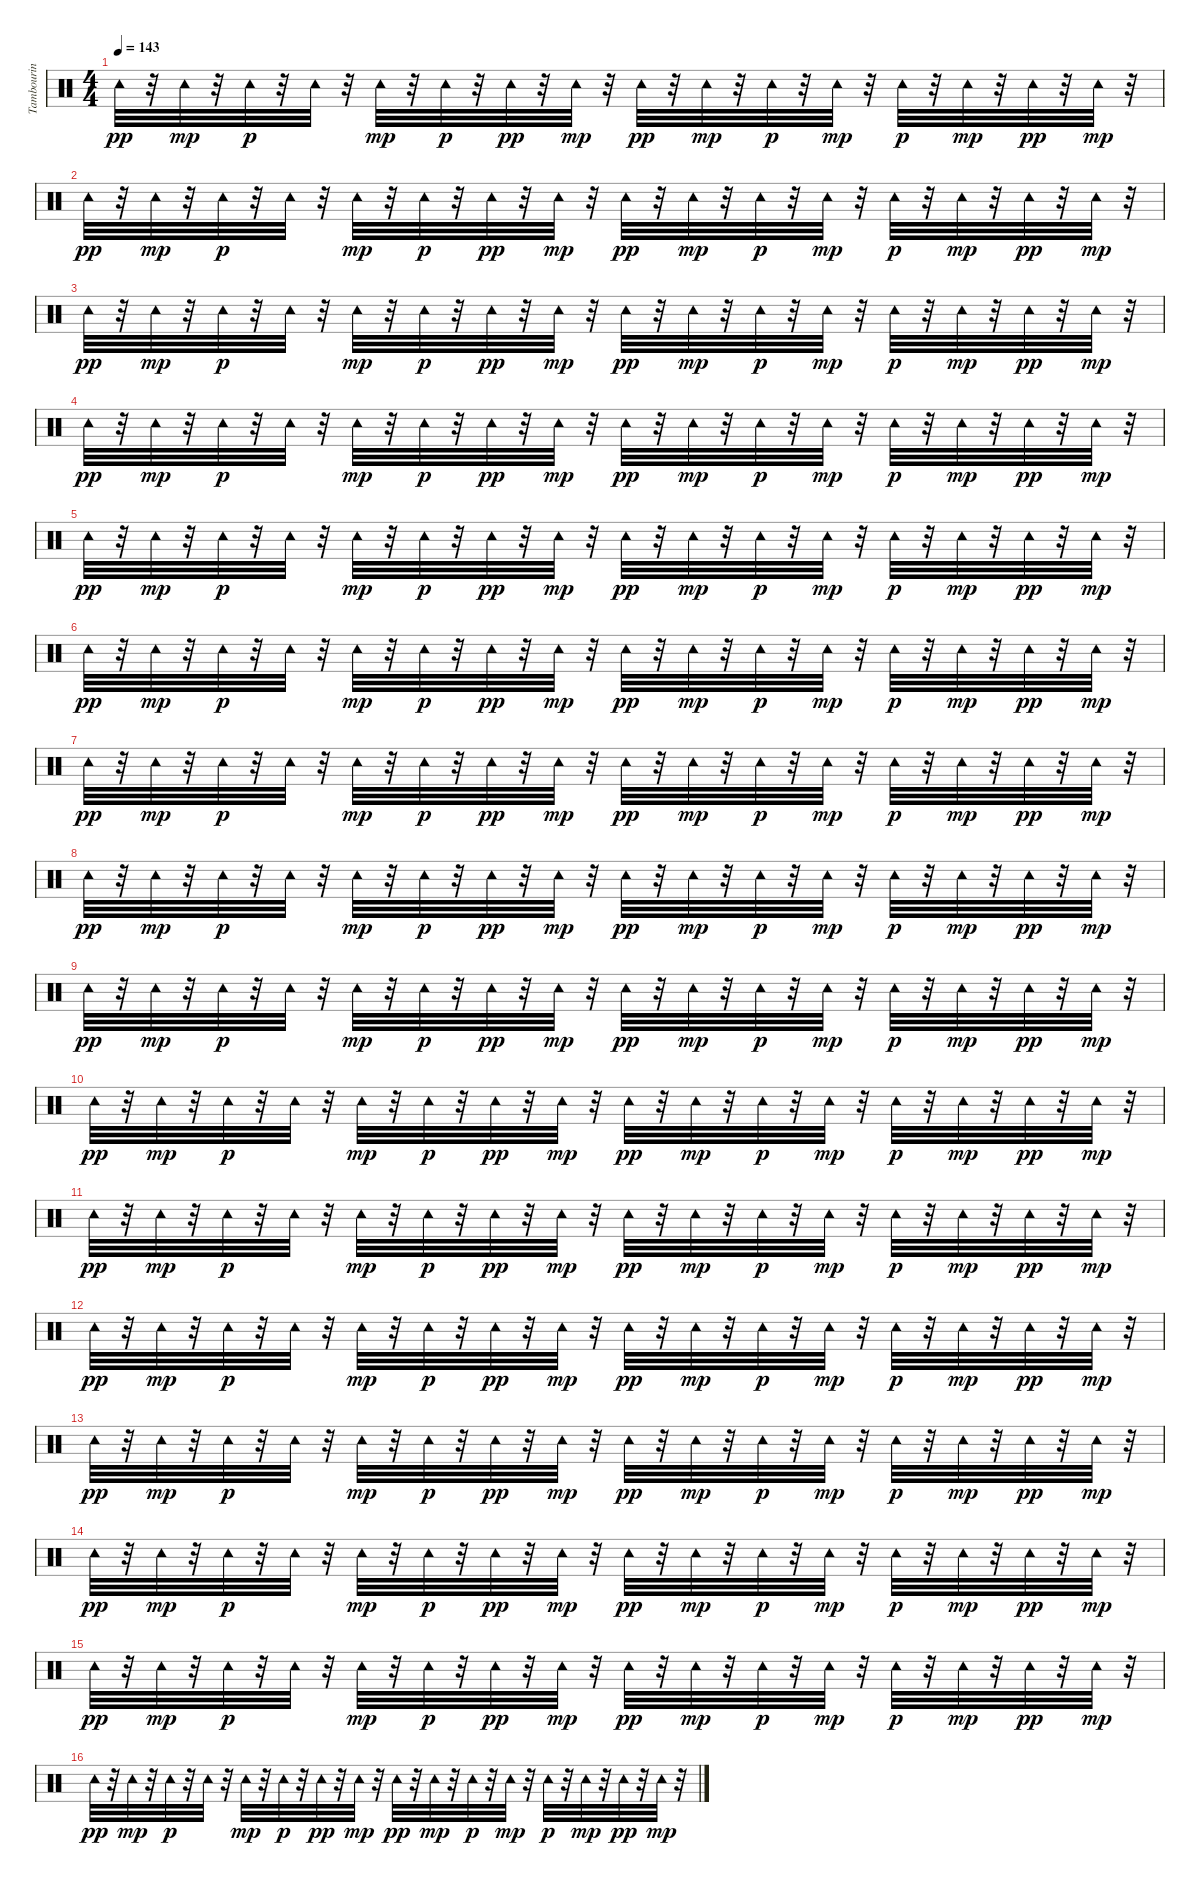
\track ("Tambourin" "Tambourin") {instrument percussion}
\staff {score}
\articulation defaults
\ts (4 4)
\tempo 143
\clef neutral
\ks c "Tambourine (hit)".32{dy pp}
r.32 "Tambourine (hit)".32{dy mp} r.32 "Tambourine (hit)".32{dy p} r.32 "Tambourine (hit)".32 r.32 "Tambourine (hit)".32{dy mp} r.32 "Tambourine (hit)".32{dy p} r.32 "Tambourine (hit)".32{dy pp} r.32 "Tambourine (hit)".32{dy mp} r.32 "Tambourine (hit)".32{dy pp} r.32 "Tambourine (hit)".32{dy mp} r.32 "Tambourine (hit)".32{dy p} r.32 "Tambourine (hit)".32{dy mp} r.32 "Tambourine (hit)".32{dy p} r.32 "Tambourine (hit)".32{dy mp} r.32 "Tambourine (hit)".32{dy pp} r.32 "Tambourine (hit)".32{dy mp} r.32 |
"Tambourine (hit)".32{dy pp} r.32 "Tambourine (hit)".32{dy mp} r.32 "Tambourine (hit)".32{dy p} r.32 "Tambourine (hit)".32 r.32 "Tambourine (hit)".32{dy mp} r.32 "Tambourine (hit)".32{dy p} r.32 "Tambourine (hit)".32{dy pp} r.32 "Tambourine (hit)".32{dy mp} r.32 "Tambourine (hit)".32{dy pp} r.32 "Tambourine (hit)".32{dy mp} r.32 "Tambourine (hit)".32{dy p} r.32 "Tambourine (hit)".32{dy mp} r.32 "Tambourine (hit)".32{dy p} r.32 "Tambourine (hit)".32{dy mp} r.32 "Tambourine (hit)".32{dy pp} r.32 "Tambourine (hit)".32{dy mp} r.32 |
"Tambourine (hit)".32{dy pp} r.32 "Tambourine (hit)".32{dy mp} r.32 "Tambourine (hit)".32{dy p} r.32 "Tambourine (hit)".32 r.32 "Tambourine (hit)".32{dy mp} r.32 "Tambourine (hit)".32{dy p} r.32 "Tambourine (hit)".32{dy pp} r.32 "Tambourine (hit)".32{dy mp} r.32 "Tambourine (hit)".32{dy pp} r.32 "Tambourine (hit)".32{dy mp} r.32 "Tambourine (hit)".32{dy p} r.32 "Tambourine (hit)".32{dy mp} r.32 "Tambourine (hit)".32{dy p} r.32 "Tambourine (hit)".32{dy mp} r.32 "Tambourine (hit)".32{dy pp} r.32 "Tambourine (hit)".32{dy mp} r.32 |
"Tambourine (hit)".32{dy pp} r.32 "Tambourine (hit)".32{dy mp} r.32 "Tambourine (hit)".32{dy p} r.32 "Tambourine (hit)".32 r.32 "Tambourine (hit)".32{dy mp} r.32 "Tambourine (hit)".32{dy p} r.32 "Tambourine (hit)".32{dy pp} r.32 "Tambourine (hit)".32{dy mp} r.32 "Tambourine (hit)".32{dy pp} r.32 "Tambourine (hit)".32{dy mp} r.32 "Tambourine (hit)".32{dy p} r.32 "Tambourine (hit)".32{dy mp} r.32 "Tambourine (hit)".32{dy p} r.32 "Tambourine (hit)".32{dy mp} r.32 "Tambourine (hit)".32{dy pp} r.32 "Tambourine (hit)".32{dy mp} r.32 |
"Tambourine (hit)".32{dy pp} r.32 "Tambourine (hit)".32{dy mp} r.32 "Tambourine (hit)".32{dy p} r.32 "Tambourine (hit)".32 r.32 "Tambourine (hit)".32{dy mp} r.32 "Tambourine (hit)".32{dy p} r.32 "Tambourine (hit)".32{dy pp} r.32 "Tambourine (hit)".32{dy mp} r.32 "Tambourine (hit)".32{dy pp} r.32 "Tambourine (hit)".32{dy mp} r.32 "Tambourine (hit)".32{dy p} r.32 "Tambourine (hit)".32{dy mp} r.32 "Tambourine (hit)".32{dy p} r.32 "Tambourine (hit)".32{dy mp} r.32 "Tambourine (hit)".32{dy pp} r.32 "Tambourine (hit)".32{dy mp} r.32 |
"Tambourine (hit)".32{dy pp} r.32 "Tambourine (hit)".32{dy mp} r.32 "Tambourine (hit)".32{dy p} r.32 "Tambourine (hit)".32 r.32 "Tambourine (hit)".32{dy mp} r.32 "Tambourine (hit)".32{dy p} r.32 "Tambourine (hit)".32{dy pp} r.32 "Tambourine (hit)".32{dy mp} r.32 "Tambourine (hit)".32{dy pp} r.32 "Tambourine (hit)".32{dy mp} r.32 "Tambourine (hit)".32{dy p} r.32 "Tambourine (hit)".32{dy mp} r.32 "Tambourine (hit)".32{dy p} r.32 "Tambourine (hit)".32{dy mp} r.32 "Tambourine (hit)".32{dy pp} r.32 "Tambourine (hit)".32{dy mp} r.32 |
"Tambourine (hit)".32{dy pp} r.32 "Tambourine (hit)".32{dy mp} r.32 "Tambourine (hit)".32{dy p} r.32 "Tambourine (hit)".32 r.32 "Tambourine (hit)".32{dy mp} r.32 "Tambourine (hit)".32{dy p} r.32 "Tambourine (hit)".32{dy pp} r.32 "Tambourine (hit)".32{dy mp} r.32 "Tambourine (hit)".32{dy pp} r.32 "Tambourine (hit)".32{dy mp} r.32 "Tambourine (hit)".32{dy p} r.32 "Tambourine (hit)".32{dy mp} r.32 "Tambourine (hit)".32{dy p} r.32 "Tambourine (hit)".32{dy mp} r.32 "Tambourine (hit)".32{dy pp} r.32 "Tambourine (hit)".32{dy mp} r.32 |
"Tambourine (hit)".32{dy pp} r.32 "Tambourine (hit)".32{dy mp} r.32 "Tambourine (hit)".32{dy p} r.32 "Tambourine (hit)".32 r.32 "Tambourine (hit)".32{dy mp} r.32 "Tambourine (hit)".32{dy p} r.32 "Tambourine (hit)".32{dy pp} r.32 "Tambourine (hit)".32{dy mp} r.32 "Tambourine (hit)".32{dy pp} r.32 "Tambourine (hit)".32{dy mp} r.32 "Tambourine (hit)".32{dy p} r.32 "Tambourine (hit)".32{dy mp} r.32 "Tambourine (hit)".32{dy p} r.32 "Tambourine (hit)".32{dy mp} r.32 "Tambourine (hit)".32{dy pp} r.32 "Tambourine (hit)".32{dy mp} r.32 |
"Tambourine (hit)".32{dy pp} r.32 "Tambourine (hit)".32{dy mp} r.32 "Tambourine (hit)".32{dy p} r.32 "Tambourine (hit)".32 r.32 "Tambourine (hit)".32{dy mp} r.32 "Tambourine (hit)".32{dy p} r.32 "Tambourine (hit)".32{dy pp} r.32 "Tambourine (hit)".32{dy mp} r.32 "Tambourine (hit)".32{dy pp} r.32 "Tambourine (hit)".32{dy mp} r.32 "Tambourine (hit)".32{dy p} r.32 "Tambourine (hit)".32{dy mp} r.32 "Tambourine (hit)".32{dy p} r.32 "Tambourine (hit)".32{dy mp} r.32 "Tambourine (hit)".32{dy pp} r.32 "Tambourine (hit)".32{dy mp} r.32 |
"Tambourine (hit)".32{dy pp} r.32 "Tambourine (hit)".32{dy mp} r.32 "Tambourine (hit)".32{dy p} r.32 "Tambourine (hit)".32 r.32 "Tambourine (hit)".32{dy mp} r.32 "Tambourine (hit)".32{dy p} r.32 "Tambourine (hit)".32{dy pp} r.32 "Tambourine (hit)".32{dy mp} r.32 "Tambourine (hit)".32{dy pp} r.32 "Tambourine (hit)".32{dy mp} r.32 "Tambourine (hit)".32{dy p} r.32 "Tambourine (hit)".32{dy mp} r.32 "Tambourine (hit)".32{dy p} r.32 "Tambourine (hit)".32{dy mp} r.32 "Tambourine (hit)".32{dy pp} r.32 "Tambourine (hit)".32{dy mp} r.32 |
"Tambourine (hit)".32{dy pp} r.32 "Tambourine (hit)".32{dy mp} r.32 "Tambourine (hit)".32{dy p} r.32 "Tambourine (hit)".32 r.32 "Tambourine (hit)".32{dy mp} r.32 "Tambourine (hit)".32{dy p} r.32 "Tambourine (hit)".32{dy pp} r.32 "Tambourine (hit)".32{dy mp} r.32 "Tambourine (hit)".32{dy pp} r.32 "Tambourine (hit)".32{dy mp} r.32 "Tambourine (hit)".32{dy p} r.32 "Tambourine (hit)".32{dy mp} r.32 "Tambourine (hit)".32{dy p} r.32 "Tambourine (hit)".32{dy mp} r.32 "Tambourine (hit)".32{dy pp} r.32 "Tambourine (hit)".32{dy mp} r.32 |
"Tambourine (hit)".32{dy pp} r.32 "Tambourine (hit)".32{dy mp} r.32 "Tambourine (hit)".32{dy p} r.32 "Tambourine (hit)".32 r.32 "Tambourine (hit)".32{dy mp} r.32 "Tambourine (hit)".32{dy p} r.32 "Tambourine (hit)".32{dy pp} r.32 "Tambourine (hit)".32{dy mp} r.32 "Tambourine (hit)".32{dy pp} r.32 "Tambourine (hit)".32{dy mp} r.32 "Tambourine (hit)".32{dy p} r.32 "Tambourine (hit)".32{dy mp} r.32 "Tambourine (hit)".32{dy p} r.32 "Tambourine (hit)".32{dy mp} r.32 "Tambourine (hit)".32{dy pp} r.32 "Tambourine (hit)".32{dy mp} r.32 |
"Tambourine (hit)".32{dy pp} r.32 "Tambourine (hit)".32{dy mp} r.32 "Tambourine (hit)".32{dy p} r.32 "Tambourine (hit)".32 r.32 "Tambourine (hit)".32{dy mp} r.32 "Tambourine (hit)".32{dy p} r.32 "Tambourine (hit)".32{dy pp} r.32 "Tambourine (hit)".32{dy mp} r.32 "Tambourine (hit)".32{dy pp} r.32 "Tambourine (hit)".32{dy mp} r.32 "Tambourine (hit)".32{dy p} r.32 "Tambourine (hit)".32{dy mp} r.32 "Tambourine (hit)".32{dy p} r.32 "Tambourine (hit)".32{dy mp} r.32 "Tambourine (hit)".32{dy pp} r.32 "Tambourine (hit)".32{dy mp} r.32 |
"Tambourine (hit)".32{dy pp} r.32 "Tambourine (hit)".32{dy mp} r.32 "Tambourine (hit)".32{dy p} r.32 "Tambourine (hit)".32 r.32 "Tambourine (hit)".32{dy mp} r.32 "Tambourine (hit)".32{dy p} r.32 "Tambourine (hit)".32{dy pp} r.32 "Tambourine (hit)".32{dy mp} r.32 "Tambourine (hit)".32{dy pp} r.32 "Tambourine (hit)".32{dy mp} r.32 "Tambourine (hit)".32{dy p} r.32 "Tambourine (hit)".32{dy mp} r.32 "Tambourine (hit)".32{dy p} r.32 "Tambourine (hit)".32{dy mp} r.32 "Tambourine (hit)".32{dy pp} r.32 "Tambourine (hit)".32{dy mp} r.32 |
"Tambourine (hit)".32{dy pp} r.32 "Tambourine (hit)".32{dy mp} r.32 "Tambourine (hit)".32{dy p} r.32 "Tambourine (hit)".32 r.32 "Tambourine (hit)".32{dy mp} r.32 "Tambourine (hit)".32{dy p} r.32 "Tambourine (hit)".32{dy pp} r.32 "Tambourine (hit)".32{dy mp} r.32 "Tambourine (hit)".32{dy pp} r.32 "Tambourine (hit)".32{dy mp} r.32 "Tambourine (hit)".32{dy p} r.32 "Tambourine (hit)".32{dy mp} r.32 "Tambourine (hit)".32{dy p} r.32 "Tambourine (hit)".32{dy mp} r.32 "Tambourine (hit)".32{dy pp} r.32 "Tambourine (hit)".32{dy mp} r.32 |
"Tambourine (hit)".32{dy pp} r.32 "Tambourine (hit)".32{dy mp} r.32 "Tambourine (hit)".32{dy p} r.32 "Tambourine (hit)".32 r.32 "Tambourine (hit)".32{dy mp} r.32 "Tambourine (hit)".32{dy p} r.32 "Tambourine (hit)".32{dy pp} r.32 "Tambourine (hit)".32{dy mp} r.32 "Tambourine (hit)".32{dy pp} r.32 "Tambourine (hit)".32{dy mp} r.32 "Tambourine (hit)".32{dy p} r.32 "Tambourine (hit)".32{dy mp} r.32 "Tambourine (hit)".32{dy p} r.32 "Tambourine (hit)".32{dy mp} r.32 "Tambourine (hit)".32{dy pp} r.32 "Tambourine (hit)".32{dy mp} r.32
